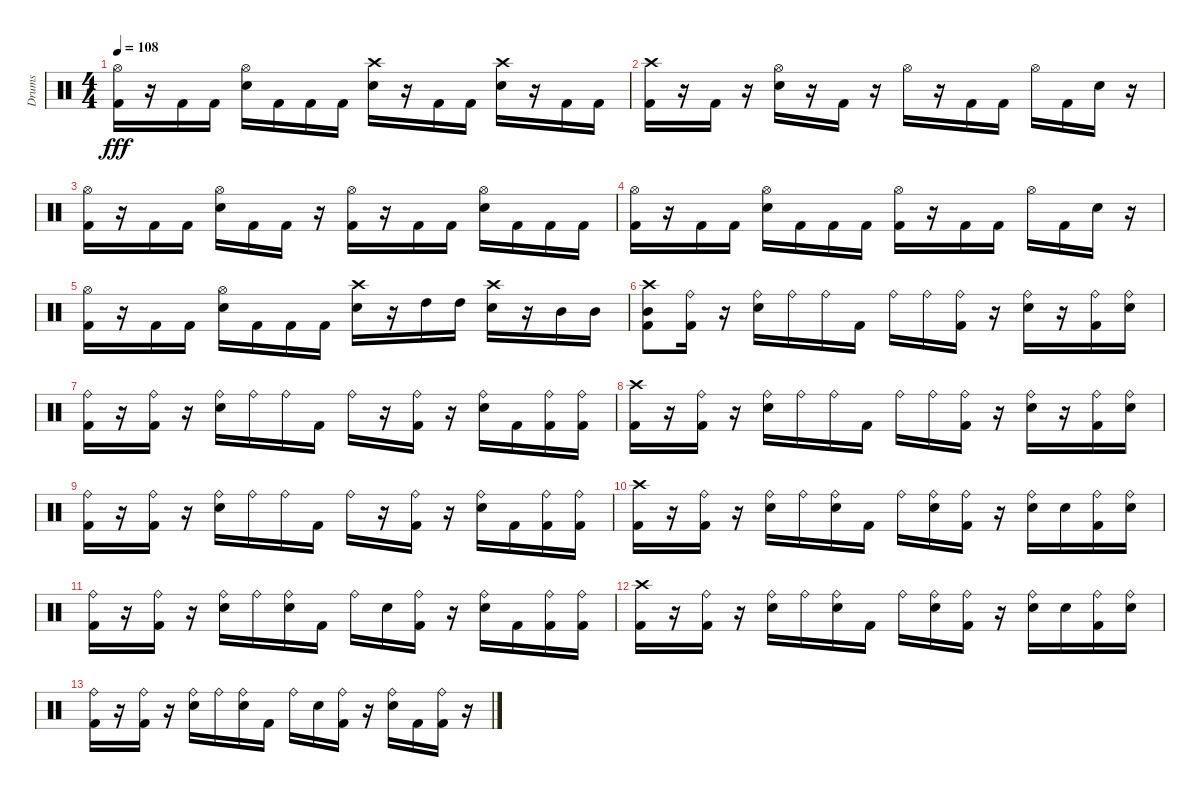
\track ("Drums " "Drums ") {instrument percussion}
\staff {score}
\articulation defaults
\ts (4 4)
\tempo 108
\clef neutral
\ks c
("Kick (hit) 2" "Hi-Hat (open)").16{dy fff} r.16 "Kick (hit) 2".16 "Kick (hit) 2".16 ("Snare (hit) 2" "Hi-Hat (open)").16 "Kick (hit) 2".16 "Kick (hit) 2".16 "Kick (hit) 2".16 ("Snare (hit) 2" "Crash high (hit)").16 r.16 "Kick (hit) 2".16 "Kick (hit) 2".16 ("Snare (hit) 2" "Crash high (hit)").16 r.16 "Kick (hit) 2".16 "Kick (hit) 2".16 |
("Kick (hit) 2" "Crash high (hit)").16 r.16 "Kick (hit) 2".16 r.16 ("Snare (hit) 2" "Hi-Hat (open)").16 r.16 "Kick (hit) 2".16 r.16 "Hi-Hat (open)".16 r.16 "Kick (hit) 2".16 "Kick (hit) 2".16 "Hi-Hat (open)".16 "Kick (hit) 2".16 "Snare (hit) 2".16 r.16 |
("Kick (hit) 2" "Hi-Hat (open)").16 r.16 "Kick (hit) 2".16 "Kick (hit) 2".16 ("Snare (hit) 2" "Hi-Hat (open)").16 "Kick (hit) 2".16 "Kick (hit) 2".16 r.16 ("Kick (hit) 2" "Hi-Hat (open)").16 r.16 "Kick (hit) 2".16 "Kick (hit) 2".16 ("Snare (hit) 2" "Hi-Hat (open)").16 "Kick (hit) 2".16 "Kick (hit) 2".16 "Kick (hit) 2".16 |
("Kick (hit) 2" "Hi-Hat (open)").16 r.16 "Kick (hit) 2".16 "Kick (hit) 2".16 ("Snare (hit) 2" "Hi-Hat (open)").16 "Kick (hit) 2".16 "Kick (hit) 2".16 "Kick (hit) 2".16 ("Kick (hit) 2" "Hi-Hat (open)").16 r.16 "Kick (hit) 2".16 "Kick (hit) 2".16 "Hi-Hat (open)".16 "Kick (hit) 2".16 "Snare (hit) 2".16 r.16 |
("Kick (hit) 2" "Hi-Hat (open)").16 r.16 "Kick (hit) 2".16 "Kick (hit) 2".16 ("Snare (hit) 2" "Hi-Hat (open)").16 "Kick (hit) 2".16 "Kick (hit) 2".16 "Kick (hit) 2".16 ("Snare (hit) 2" "Crash high (hit)").16 r.16 "High Tom (hit)".16 "High Tom (hit)".16 ("Snare (hit) 2" "Crash high (hit)").16 r.16 "Mid Tom (hit)".16 "Mid Tom (hit)".16 |
("Kick (hit) 2" "Mid Tom (hit)" "Crash high (hit)").8 ("Kick (hit) 2" "Ride (bell)").16 r.16 ("Snare (hit) 2" "Ride (bell)").16 "Ride (bell)".16 "Ride (bell)".16 "Kick (hit) 2".16 "Ride (bell)".16 "Ride (bell)".16 ("Kick (hit) 2" "Ride (bell)").16 r.16 ("Snare (hit) 2" "Ride (bell)").16 r.16 ("Kick (hit) 2" "Ride (bell)").16 ("Snare (hit) 2" "Ride (bell)").16 |
("Kick (hit) 2" "Ride (bell)").16 r.16 ("Kick (hit) 2" "Ride (bell)").16 r.16 ("Snare (hit) 2" "Ride (bell)").16 "Ride (bell)".16 "Ride (bell)".16 "Kick (hit) 2".16 "Ride (bell)".16 r.16 ("Kick (hit) 2" "Ride (bell)").16 r.16 ("Snare (hit) 2" "Ride (bell)").16 "Kick (hit) 2".16 ("Kick (hit) 2" "Ride (bell)").16 ("Kick (hit) 2" "Ride (bell)").16 |
("Kick (hit) 2" "Crash high (hit)").16 r.16 ("Kick (hit) 2" "Ride (bell)").16 r.16 ("Snare (hit) 2" "Ride (bell)").16 "Ride (bell)".16 "Ride (bell)".16 "Kick (hit) 2".16 "Ride (bell)".16 "Ride (bell)".16 ("Kick (hit) 2" "Ride (bell)").16 r.16 ("Snare (hit) 2" "Ride (bell)").16 r.16 ("Kick (hit) 2" "Ride (bell)").16 ("Snare (hit) 2" "Ride (bell)").16 |
("Kick (hit) 2" "Ride (bell)").16 r.16 ("Kick (hit) 2" "Ride (bell)").16 r.16 ("Snare (hit) 2" "Ride (bell)").16 "Ride (bell)".16 "Ride (bell)".16 "Kick (hit) 2".16 "Ride (bell)".16 r.16 ("Kick (hit) 2" "Ride (bell)").16 r.16 ("Snare (hit) 2" "Ride (bell)").16 "Kick (hit) 2".16 ("Kick (hit) 2" "Ride (bell)").16 ("Kick (hit) 2" "Ride (bell)").16 |
("Kick (hit) 2" "Crash high (hit)").16 r.16 ("Kick (hit) 2" "Ride (bell)").16 r.16 ("Snare (hit) 2" "Ride (bell)").16 "Ride (bell)".16 ("Snare (hit) 2" "Ride (bell)").16 "Kick (hit) 2".16 "Ride (bell)".16 ("Snare (hit) 2" "Ride (bell)").16 ("Kick (hit) 2" "Ride (bell)").16 r.16 ("Snare (hit) 2" "Ride (bell)").16 "Snare (hit) 2".16 ("Kick (hit) 2" "Ride (bell)").16 ("Snare (hit) 2" "Ride (bell)").16 |
("Kick (hit) 2" "Ride (bell)").16 r.16 ("Kick (hit) 2" "Ride (bell)").16 r.16 ("Snare (hit) 2" "Ride (bell)").16 "Ride (bell)".16 ("Snare (hit) 2" "Ride (bell)").16 "Kick (hit) 2".16 "Ride (bell)".16 "Snare (hit) 2".16 ("Kick (hit) 2" "Ride (bell)").16 r.16 ("Snare (hit) 2" "Ride (bell)").16 "Kick (hit) 2".16 ("Kick (hit) 2" "Ride (bell)").16 ("Kick (hit) 2" "Ride (bell)").16 |
("Kick (hit) 2" "Crash high (hit)").16 r.16 ("Kick (hit) 2" "Ride (bell)").16 r.16 ("Snare (hit) 2" "Ride (bell)").16 "Ride (bell)".16 ("Snare (hit) 2" "Ride (bell)").16 "Kick (hit) 2".16 "Ride (bell)".16 ("Snare (hit) 2" "Ride (bell)").16 ("Kick (hit) 2" "Ride (bell)").16 r.16 ("Snare (hit) 2" "Ride (bell)").16 "Snare (hit) 2".16 ("Kick (hit) 2" "Ride (bell)").16 ("Snare (hit) 2" "Ride (bell)").16 |
("Kick (hit) 2" "Ride (bell)").16 r.16 ("Kick (hit) 2" "Ride (bell)").16 r.16 ("Snare (hit) 2" "Ride (bell)").16 "Ride (bell)".16 ("Snare (hit) 2" "Ride (bell)").16 "Kick (hit) 2".16 "Ride (bell)".16 "Snare (hit) 2".16 ("Kick (hit) 2" "Ride (bell)").16 r.16 ("Snare (hit) 2" "Ride (bell)").16 "Kick (hit) 2".16 ("Kick (hit) 2" "Ride (bell)").16 r.16
